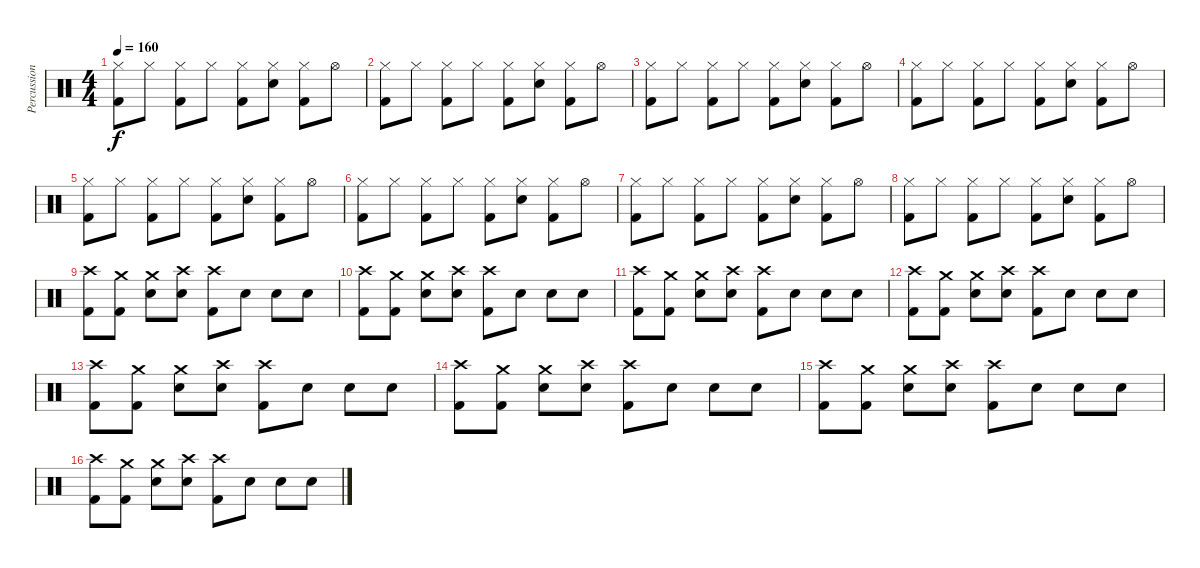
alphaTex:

\track ("Percussion" "Percussion") {instrument percussion}
\staff {score}
\articulation defaults
\ts (4 4)
\tempo 160
\clef neutral
\ks c
("Hi-Hat (closed)" "Kick (hit) 2").8{dy f} "Hi-Hat (closed)".8 ("Hi-Hat (closed)" "Kick (hit) 2").8 "Hi-Hat (closed)".8 ("Hi-Hat (closed)" "Kick (hit) 2").8 ("Hi-Hat (closed)" "Snare (hit) 2").8 ("Hi-Hat (closed)" "Kick (hit) 2").8 "Hi-Hat (open)".8 |
("Hi-Hat (closed)" "Kick (hit) 2").8 "Hi-Hat (closed)".8 ("Hi-Hat (closed)" "Kick (hit) 2").8 "Hi-Hat (closed)".8 ("Hi-Hat (closed)" "Kick (hit) 2").8 ("Hi-Hat (closed)" "Snare (hit) 2").8 ("Hi-Hat (closed)" "Kick (hit) 2").8 "Hi-Hat (open)".8 |
("Hi-Hat (closed)" "Kick (hit) 2").8 "Hi-Hat (closed)".8 ("Hi-Hat (closed)" "Kick (hit) 2").8 "Hi-Hat (closed)".8 ("Hi-Hat (closed)" "Kick (hit) 2").8 ("Hi-Hat (closed)" "Snare (hit) 2").8 ("Hi-Hat (closed)" "Kick (hit) 2").8 "Hi-Hat (open)".8 |
("Hi-Hat (closed)" "Kick (hit) 2").8 "Hi-Hat (closed)".8 ("Hi-Hat (closed)" "Kick (hit) 2").8 "Hi-Hat (closed)".8 ("Hi-Hat (closed)" "Kick (hit) 2").8 ("Hi-Hat (closed)" "Snare (hit) 2").8 ("Hi-Hat (closed)" "Kick (hit) 2").8 "Hi-Hat (open)".8 |
("Hi-Hat (closed)" "Kick (hit) 2").8 "Hi-Hat (closed)".8 ("Hi-Hat (closed)" "Kick (hit) 2").8 "Hi-Hat (closed)".8 ("Hi-Hat (closed)" "Kick (hit) 2").8 ("Hi-Hat (closed)" "Snare (hit) 2").8 ("Hi-Hat (closed)" "Kick (hit) 2").8 "Hi-Hat (open)".8 |
("Hi-Hat (closed)" "Kick (hit) 2").8 "Hi-Hat (closed)".8 ("Hi-Hat (closed)" "Kick (hit) 2").8 "Hi-Hat (closed)".8 ("Hi-Hat (closed)" "Kick (hit) 2").8 ("Hi-Hat (closed)" "Snare (hit) 2").8 ("Hi-Hat (closed)" "Kick (hit) 2").8 "Hi-Hat (open)".8 |
("Hi-Hat (closed)" "Kick (hit) 2").8 "Hi-Hat (closed)".8 ("Hi-Hat (closed)" "Kick (hit) 2").8 "Hi-Hat (closed)".8 ("Hi-Hat (closed)" "Kick (hit) 2").8 ("Hi-Hat (closed)" "Snare (hit) 2").8 ("Hi-Hat (closed)" "Kick (hit) 2").8 "Hi-Hat (open)".8 |
("Hi-Hat (closed)" "Kick (hit) 2").8 "Hi-Hat (closed)".8 ("Hi-Hat (closed)" "Kick (hit) 2").8 "Hi-Hat (closed)".8 ("Hi-Hat (closed)" "Kick (hit) 2").8 ("Hi-Hat (closed)" "Snare (hit) 2").8 ("Hi-Hat (closed)" "Kick (hit) 2").8 "Hi-Hat (open)".8 |
("Crash high (hit)" "Kick (hit) 2").8 ("Crash medium (hit)" "Kick (hit) 2").8 ("Crash medium (hit)" "Snare (hit) 2").8 ("Crash high (hit)" "Snare (hit) 2").8 ("Crash high (hit)" "Kick (hit) 2").8 "Snare (hit) 2".8 "Snare (hit) 2".8 "Snare (hit) 2".8 |
("Crash high (hit)" "Kick (hit) 2").8 ("Crash medium (hit)" "Kick (hit) 2").8 ("Crash medium (hit)" "Snare (hit) 2").8 ("Crash high (hit)" "Snare (hit) 2").8 ("Crash high (hit)" "Kick (hit) 2").8 "Snare (hit) 2".8 "Snare (hit) 2".8 "Snare (hit) 2".8 |
("Crash high (hit)" "Kick (hit) 2").8 ("Crash medium (hit)" "Kick (hit) 2").8 ("Crash medium (hit)" "Snare (hit) 2").8 ("Crash high (hit)" "Snare (hit) 2").8 ("Crash high (hit)" "Kick (hit) 2").8 "Snare (hit) 2".8 "Snare (hit) 2".8 "Snare (hit) 2".8 |
("Crash high (hit)" "Kick (hit) 2").8 ("Crash medium (hit)" "Kick (hit) 2").8 ("Crash medium (hit)" "Snare (hit) 2").8 ("Crash high (hit)" "Snare (hit) 2").8 ("Crash high (hit)" "Kick (hit) 2").8 "Snare (hit) 2".8 "Snare (hit) 2".8 "Snare (hit) 2".8 |
("Crash high (hit)" "Kick (hit) 2").8 ("Crash medium (hit)" "Kick (hit) 2").8 ("Crash medium (hit)" "Snare (hit) 2").8 ("Crash high (hit)" "Snare (hit) 2").8 ("Crash high (hit)" "Kick (hit) 2").8 "Snare (hit) 2".8 "Snare (hit) 2".8 "Snare (hit) 2".8 |
("Crash high (hit)" "Kick (hit) 2").8 ("Crash medium (hit)" "Kick (hit) 2").8 ("Crash medium (hit)" "Snare (hit) 2").8 ("Crash high (hit)" "Snare (hit) 2").8 ("Crash high (hit)" "Kick (hit) 2").8 "Snare (hit) 2".8 "Snare (hit) 2".8 "Snare (hit) 2".8 |
("Crash high (hit)" "Kick (hit) 2").8 ("Crash medium (hit)" "Kick (hit) 2").8 ("Crash medium (hit)" "Snare (hit) 2").8 ("Crash high (hit)" "Snare (hit) 2").8 ("Crash high (hit)" "Kick (hit) 2").8 "Snare (hit) 2".8 "Snare (hit) 2".8 "Snare (hit) 2".8 |
("Crash high (hit)" "Kick (hit) 2").8 ("Crash medium (hit)" "Kick (hit) 2").8 ("Crash medium (hit)" "Snare (hit) 2").8 ("Crash high (hit)" "Snare (hit) 2").8 ("Crash high (hit)" "Kick (hit) 2").8 "Snare (hit) 2".8 "Snare (hit) 2".8 "Snare (hit) 2".8
